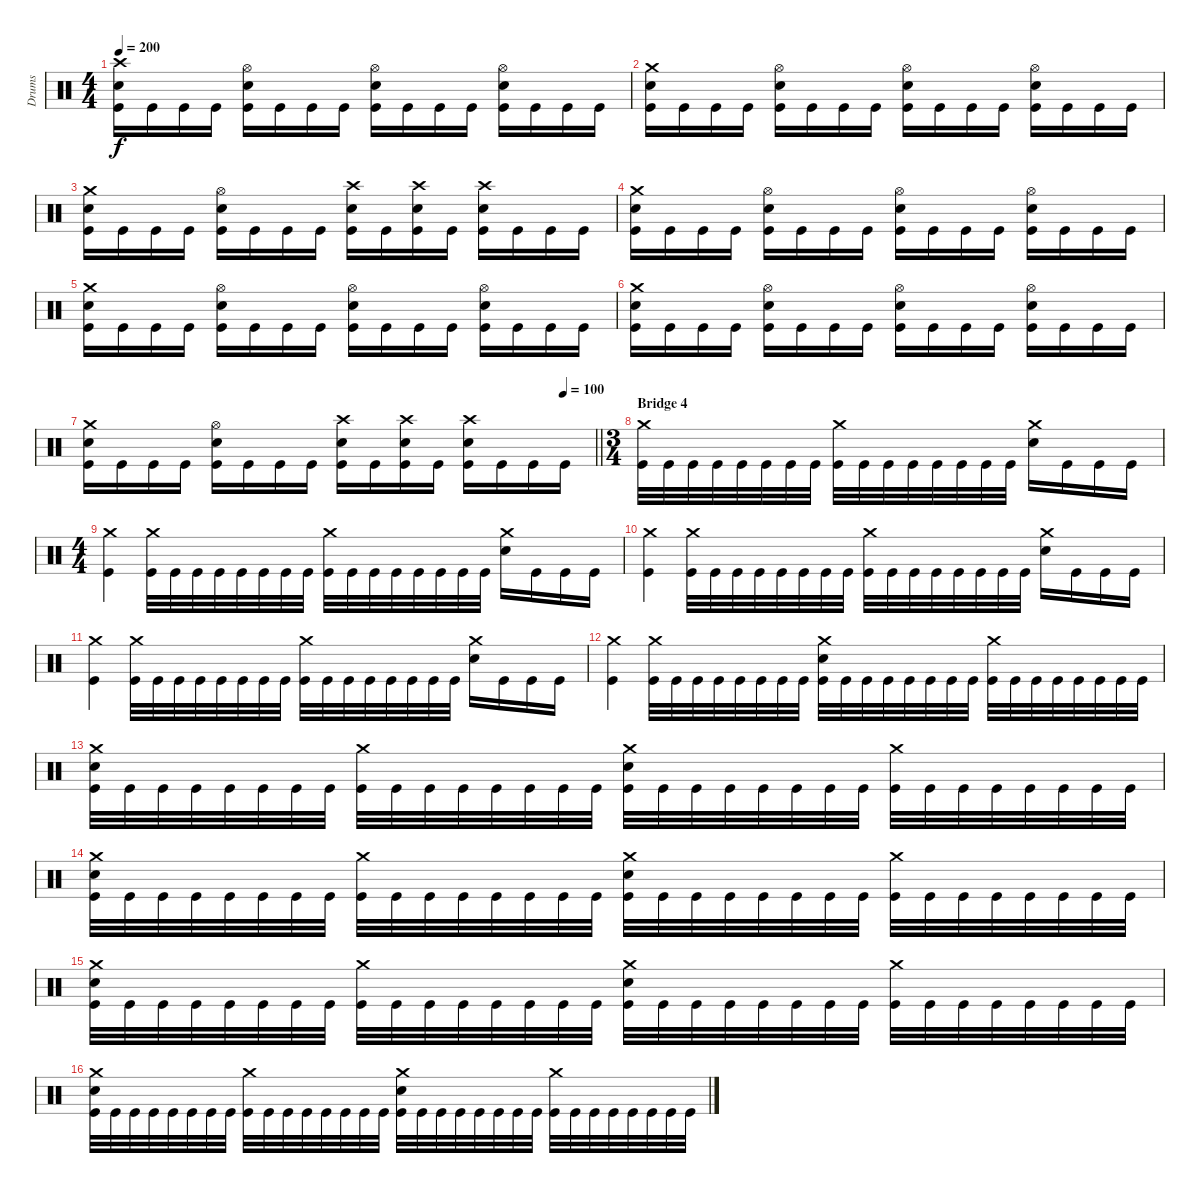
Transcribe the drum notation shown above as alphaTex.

\track ("Drums" "Drums") {instrument percussion}
\staff {score}
\articulation defaults
\ts (4 4)
\tempo 200
\clef neutral
\ks c
("Crash high (hit)" "Snare (hit) 2" "Kick (hit)").16{dy f} "Kick (hit)".16 "Kick (hit)".16 "Kick (hit)".16 ("Hi-Hat (open)" "Snare (hit) 2" "Kick (hit)").16 "Kick (hit)".16 "Kick (hit)".16 "Kick (hit)".16 ("Hi-Hat (open)" "Snare (hit) 2" "Kick (hit)").16 "Kick (hit)".16 "Kick (hit)".16 "Kick (hit)".16 ("Hi-Hat (open)" "Snare (hit) 2" "Kick (hit)").16 "Kick (hit)".16 "Kick (hit)".16 "Kick (hit)".16 |
("Crash medium (hit)" "Snare (hit) 2" "Kick (hit)").16 "Kick (hit)".16 "Kick (hit)".16 "Kick (hit)".16 ("Hi-Hat (open)" "Snare (hit) 2" "Kick (hit)").16 "Kick (hit)".16 "Kick (hit)".16 "Kick (hit)".16 ("Hi-Hat (open)" "Snare (hit) 2" "Kick (hit)").16 "Kick (hit)".16 "Kick (hit)".16 "Kick (hit)".16 ("Hi-Hat (open)" "Snare (hit) 2" "Kick (hit)").16 "Kick (hit)".16 "Kick (hit)".16 "Kick (hit)".16 |
("Crash medium (hit)" "Snare (hit) 2" "Kick (hit)").16 "Kick (hit)".16 "Kick (hit)".16 "Kick (hit)".16 ("Hi-Hat (open)" "Snare (hit) 2" "Kick (hit)").16 "Kick (hit)".16 "Kick (hit)".16 "Kick (hit)".16 ("Crash high (hit)" "Snare (hit) 2" "Kick (hit)").16 "Kick (hit)".16 ("Crash high (hit)" "Snare (hit) 2" "Kick (hit)").16 "Kick (hit)".16 ("Crash high (hit)" "Snare (hit) 2" "Kick (hit)").16 "Kick (hit)".16 "Kick (hit)".16 "Kick (hit)".16 |
("Crash medium (hit)" "Snare (hit) 2" "Kick (hit)").16 "Kick (hit)".16 "Kick (hit)".16 "Kick (hit)".16 ("Hi-Hat (open)" "Snare (hit) 2" "Kick (hit)").16 "Kick (hit)".16 "Kick (hit)".16 "Kick (hit)".16 ("Hi-Hat (open)" "Snare (hit) 2" "Kick (hit)").16 "Kick (hit)".16 "Kick (hit)".16 "Kick (hit)".16 ("Hi-Hat (open)" "Snare (hit) 2" "Kick (hit)").16 "Kick (hit)".16 "Kick (hit)".16 "Kick (hit)".16 |
("Crash medium (hit)" "Snare (hit) 2" "Kick (hit)").16 "Kick (hit)".16 "Kick (hit)".16 "Kick (hit)".16 ("Hi-Hat (open)" "Snare (hit) 2" "Kick (hit)").16 "Kick (hit)".16 "Kick (hit)".16 "Kick (hit)".16 ("Hi-Hat (open)" "Snare (hit) 2" "Kick (hit)").16 "Kick (hit)".16 "Kick (hit)".16 "Kick (hit)".16 ("Hi-Hat (open)" "Snare (hit) 2" "Kick (hit)").16 "Kick (hit)".16 "Kick (hit)".16 "Kick (hit)".16 |
("Crash medium (hit)" "Snare (hit) 2" "Kick (hit)").16 "Kick (hit)".16 "Kick (hit)".16 "Kick (hit)".16 ("Hi-Hat (open)" "Snare (hit) 2" "Kick (hit)").16 "Kick (hit)".16 "Kick (hit)".16 "Kick (hit)".16 ("Hi-Hat (open)" "Snare (hit) 2" "Kick (hit)").16 "Kick (hit)".16 "Kick (hit)".16 "Kick (hit)".16 ("Hi-Hat (open)" "Snare (hit) 2" "Kick (hit)").16 "Kick (hit)".16 "Kick (hit)".16 "Kick (hit)".16 |
\tempo (100 0.9375)
\barLineRight lightlight
("Crash medium (hit)" "Snare (hit) 2" "Kick (hit)").16 "Kick (hit)".16 "Kick (hit)".16 "Kick (hit)".16 ("Hi-Hat (open)" "Snare (hit) 2" "Kick (hit)").16 "Kick (hit)".16 "Kick (hit)".16 "Kick (hit)".16 ("Crash high (hit)" "Snare (hit) 2" "Kick (hit)").16 "Kick (hit)".16 ("Crash high (hit)" "Snare (hit) 2" "Kick (hit)").16 "Kick (hit)".16 ("Crash high (hit)" "Snare (hit) 2" "Kick (hit)").16 "Kick (hit)".16 "Kick (hit)".16 "Kick (hit)".16 |
\ts (3 4)
\section ("" "Bridge 4")
("Crash medium (hit)" "Kick (hit)").32 "Kick (hit)".32 "Kick (hit)".32 "Kick (hit)".32 "Kick (hit)".32 "Kick (hit)".32 "Kick (hit)".32 "Kick (hit)".32 ("Crash medium (hit)" "Kick (hit)").32 "Kick (hit)".32 "Kick (hit)".32 "Kick (hit)".32 "Kick (hit)".32 "Kick (hit)".32 "Kick (hit)".32 "Kick (hit)".32 ("Crash medium (hit)" "Snare (hit) 2").16 "Kick (hit)".16 "Kick (hit)".16 "Kick (hit)".16 |
\ts (4 4)
("Crash medium (hit)" "Kick (hit)").4 ("Crash medium (hit)" "Kick (hit)").32 "Kick (hit)".32 "Kick (hit)".32 "Kick (hit)".32 "Kick (hit)".32 "Kick (hit)".32 "Kick (hit)".32 "Kick (hit)".32 ("Crash medium (hit)" "Kick (hit)").32 "Kick (hit)".32 "Kick (hit)".32 "Kick (hit)".32 "Kick (hit)".32 "Kick (hit)".32 "Kick (hit)".32 "Kick (hit)".32 ("Crash medium (hit)" "Snare (hit) 2").16 "Kick (hit)".16 "Kick (hit)".16 "Kick (hit)".16 |
("Crash medium (hit)" "Kick (hit)").4 ("Crash medium (hit)" "Kick (hit)").32 "Kick (hit)".32 "Kick (hit)".32 "Kick (hit)".32 "Kick (hit)".32 "Kick (hit)".32 "Kick (hit)".32 "Kick (hit)".32 ("Crash medium (hit)" "Kick (hit)").32 "Kick (hit)".32 "Kick (hit)".32 "Kick (hit)".32 "Kick (hit)".32 "Kick (hit)".32 "Kick (hit)".32 "Kick (hit)".32 ("Crash medium (hit)" "Snare (hit) 2").16 "Kick (hit)".16 "Kick (hit)".16 "Kick (hit)".16 |
("Crash medium (hit)" "Kick (hit)").4 ("Crash medium (hit)" "Kick (hit)").32 "Kick (hit)".32 "Kick (hit)".32 "Kick (hit)".32 "Kick (hit)".32 "Kick (hit)".32 "Kick (hit)".32 "Kick (hit)".32 ("Crash medium (hit)" "Kick (hit)").32 "Kick (hit)".32 "Kick (hit)".32 "Kick (hit)".32 "Kick (hit)".32 "Kick (hit)".32 "Kick (hit)".32 "Kick (hit)".32 ("Crash medium (hit)" "Snare (hit) 2").16 "Kick (hit)".16 "Kick (hit)".16 "Kick (hit)".16 |
("Crash medium (hit)" "Kick (hit)").4 ("Crash medium (hit)" "Kick (hit)").32 "Kick (hit)".32 "Kick (hit)".32 "Kick (hit)".32 "Kick (hit)".32 "Kick (hit)".32 "Kick (hit)".32 "Kick (hit)".32 ("Crash medium (hit)" "Snare (hit) 2" "Kick (hit)").32 "Kick (hit)".32 "Kick (hit)".32 "Kick (hit)".32 "Kick (hit)".32 "Kick (hit)".32 "Kick (hit)".32 "Kick (hit)".32 ("Crash medium (hit)" "Kick (hit)").32 "Kick (hit)".32 "Kick (hit)".32 "Kick (hit)".32 "Kick (hit)".32 "Kick (hit)".32 "Kick (hit)".32 "Kick (hit)".32 |
("Crash medium (hit)" "Snare (hit) 2" "Kick (hit)").32 "Kick (hit)".32 "Kick (hit)".32 "Kick (hit)".32 "Kick (hit)".32 "Kick (hit)".32 "Kick (hit)".32 "Kick (hit)".32 ("Crash medium (hit)" "Kick (hit)").32 "Kick (hit)".32 "Kick (hit)".32 "Kick (hit)".32 "Kick (hit)".32 "Kick (hit)".32 "Kick (hit)".32 "Kick (hit)".32 ("Crash medium (hit)" "Snare (hit) 2" "Kick (hit)").32 "Kick (hit)".32 "Kick (hit)".32 "Kick (hit)".32 "Kick (hit)".32 "Kick (hit)".32 "Kick (hit)".32 "Kick (hit)".32 ("Crash medium (hit)" "Kick (hit)").32 "Kick (hit)".32 "Kick (hit)".32 "Kick (hit)".32 "Kick (hit)".32 "Kick (hit)".32 "Kick (hit)".32 "Kick (hit)".32 |
("Crash medium (hit)" "Snare (hit) 2" "Kick (hit)").32 "Kick (hit)".32 "Kick (hit)".32 "Kick (hit)".32 "Kick (hit)".32 "Kick (hit)".32 "Kick (hit)".32 "Kick (hit)".32 ("Crash medium (hit)" "Kick (hit)").32 "Kick (hit)".32 "Kick (hit)".32 "Kick (hit)".32 "Kick (hit)".32 "Kick (hit)".32 "Kick (hit)".32 "Kick (hit)".32 ("Crash medium (hit)" "Snare (hit) 2" "Kick (hit)").32 "Kick (hit)".32 "Kick (hit)".32 "Kick (hit)".32 "Kick (hit)".32 "Kick (hit)".32 "Kick (hit)".32 "Kick (hit)".32 ("Crash medium (hit)" "Kick (hit)").32 "Kick (hit)".32 "Kick (hit)".32 "Kick (hit)".32 "Kick (hit)".32 "Kick (hit)".32 "Kick (hit)".32 "Kick (hit)".32 |
("Crash medium (hit)" "Snare (hit) 2" "Kick (hit)").32 "Kick (hit)".32 "Kick (hit)".32 "Kick (hit)".32 "Kick (hit)".32 "Kick (hit)".32 "Kick (hit)".32 "Kick (hit)".32 ("Crash medium (hit)" "Kick (hit)").32 "Kick (hit)".32 "Kick (hit)".32 "Kick (hit)".32 "Kick (hit)".32 "Kick (hit)".32 "Kick (hit)".32 "Kick (hit)".32 ("Crash medium (hit)" "Snare (hit) 2" "Kick (hit)").32 "Kick (hit)".32 "Kick (hit)".32 "Kick (hit)".32 "Kick (hit)".32 "Kick (hit)".32 "Kick (hit)".32 "Kick (hit)".32 ("Crash medium (hit)" "Kick (hit)").32 "Kick (hit)".32 "Kick (hit)".32 "Kick (hit)".32 "Kick (hit)".32 "Kick (hit)".32 "Kick (hit)".32 "Kick (hit)".32 |
("Crash medium (hit)" "Snare (hit) 2" "Kick (hit)").32 "Kick (hit)".32 "Kick (hit)".32 "Kick (hit)".32 "Kick (hit)".32 "Kick (hit)".32 "Kick (hit)".32 "Kick (hit)".32 ("Crash medium (hit)" "Kick (hit)").32 "Kick (hit)".32 "Kick (hit)".32 "Kick (hit)".32 "Kick (hit)".32 "Kick (hit)".32 "Kick (hit)".32 "Kick (hit)".32 ("Crash medium (hit)" "Snare (hit) 2" "Kick (hit)").32 "Kick (hit)".32 "Kick (hit)".32 "Kick (hit)".32 "Kick (hit)".32 "Kick (hit)".32 "Kick (hit)".32 "Kick (hit)".32 ("Crash medium (hit)" "Kick (hit)").32 "Kick (hit)".32 "Kick (hit)".32 "Kick (hit)".32 "Kick (hit)".32 "Kick (hit)".32 "Kick (hit)".32 "Kick (hit)".32
